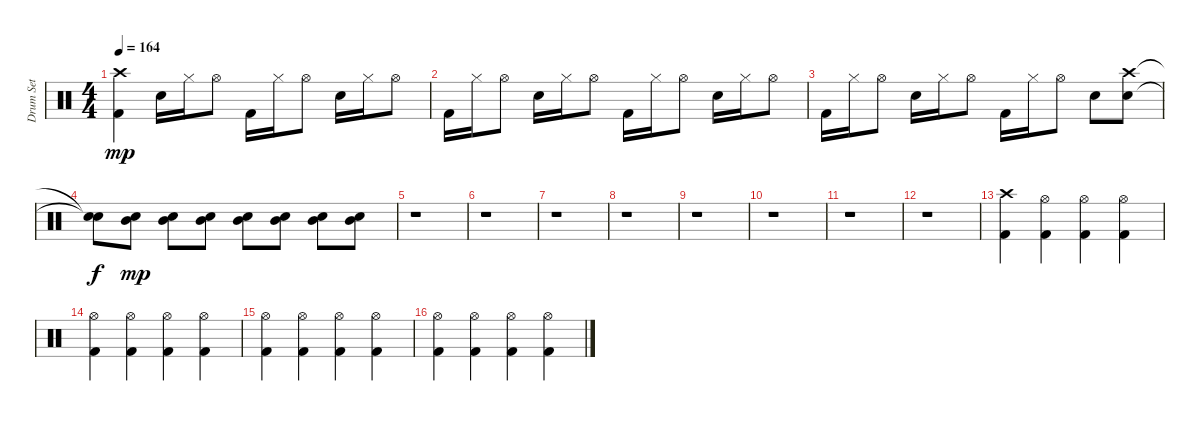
\track ("Drum Set" "Drum Set") {instrument percussion}
\staff {score}
\articulation defaults
\ts (4 4)
\tempo 164
\clef neutral
\ks c
("Kick (hit) 2" "Crash high (hit)").4{dy mp} "Snare (hit) 2".16 "Hi-Hat (closed)".16 "Hi-Hat (open)".8 "Kick (hit) 2".16 "Hi-Hat (closed)".16 "Hi-Hat (open)".8 "Snare (hit) 2".16 "Hi-Hat (closed)".16 "Hi-Hat (open)".8 |
"Kick (hit) 2".16 "Hi-Hat (closed)".16 "Hi-Hat (open)".8 "Snare (hit) 2".16 "Hi-Hat (closed)".16 "Hi-Hat (open)".8 "Kick (hit) 2".16 "Hi-Hat (closed)".16 "Hi-Hat (open)".8 "Snare (hit) 2".16 "Hi-Hat (closed)".16 "Hi-Hat (open)".8 |
"Kick (hit) 2".16 "Hi-Hat (closed)".16 "Hi-Hat (open)".8 "Snare (hit) 2".16 "Hi-Hat (closed)".16 "Hi-Hat (open)".8 "Kick (hit) 2".16 "Hi-Hat (closed)".16 "Hi-Hat (open)".8 "Snare (hit) 2".8 ("Snare (hit) 2" "Crash high (hit)").8 |
("Snare (hit)"{t} "Snare (hit)"{t}).8{dy f} ("Snare (hit) 2" "Mid Tom (hit)").8{dy mp} ("Snare (hit) 2" "Mid Tom (hit)").8 ("Snare (hit) 2" "Mid Tom (hit)").8 ("Snare (hit) 2" "Mid Tom (hit)").8 ("Snare (hit) 2" "Mid Tom (hit)").8 ("Snare (hit) 2" "Mid Tom (hit)").8 ("Snare (hit) 2" "Mid Tom (hit)").8 |
r.1 |
r.1 |
r.1 |
r.1 |
r.1 |
r.1 |
r.1 |
r.1 |
("Kick (hit) 2" "Crash high (hit)").4 ("Kick (hit) 2" "Hi-Hat (open)").4 ("Kick (hit) 2" "Hi-Hat (open)").4 ("Kick (hit) 2" "Hi-Hat (open)").4 |
("Kick (hit) 2" "Hi-Hat (open)").4 ("Kick (hit) 2" "Hi-Hat (open)").4 ("Kick (hit) 2" "Hi-Hat (open)").4 ("Kick (hit) 2" "Hi-Hat (open)").4 |
("Kick (hit) 2" "Hi-Hat (open)").4 ("Kick (hit) 2" "Hi-Hat (open)").4 ("Kick (hit) 2" "Hi-Hat (open)").4 ("Kick (hit) 2" "Hi-Hat (open)").4 |
("Kick (hit) 2" "Hi-Hat (open)").4 ("Kick (hit) 2" "Hi-Hat (open)").4 ("Kick (hit) 2" "Hi-Hat (open)").4 ("Kick (hit) 2" "Hi-Hat (open)").4
